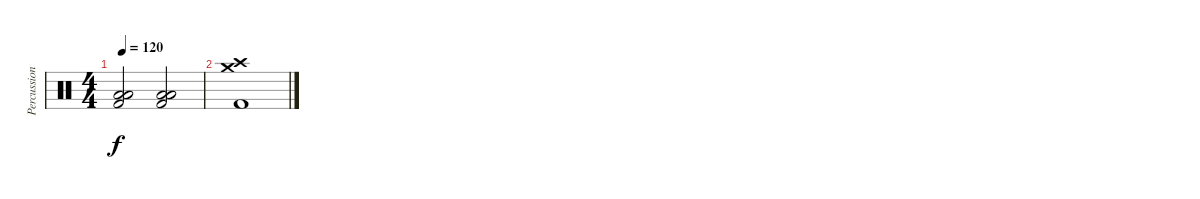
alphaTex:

\track ("Percussion" "Percussion") {instrument percussion}
\staff {score}
\articulation defaults
\ts (4 4)
\tempo 120
\clef neutral
\ks c
("Low Tom (hit)" "Low Floor Tom (hit)" "Kick (hit) 2").2{dy f} ("Low Floor Tom (hit)" "Low Tom (hit)" "Kick (hit) 2").2 |
("Crash high (hit)" "Crash medium (hit)" "Kick (hit) 2").1
